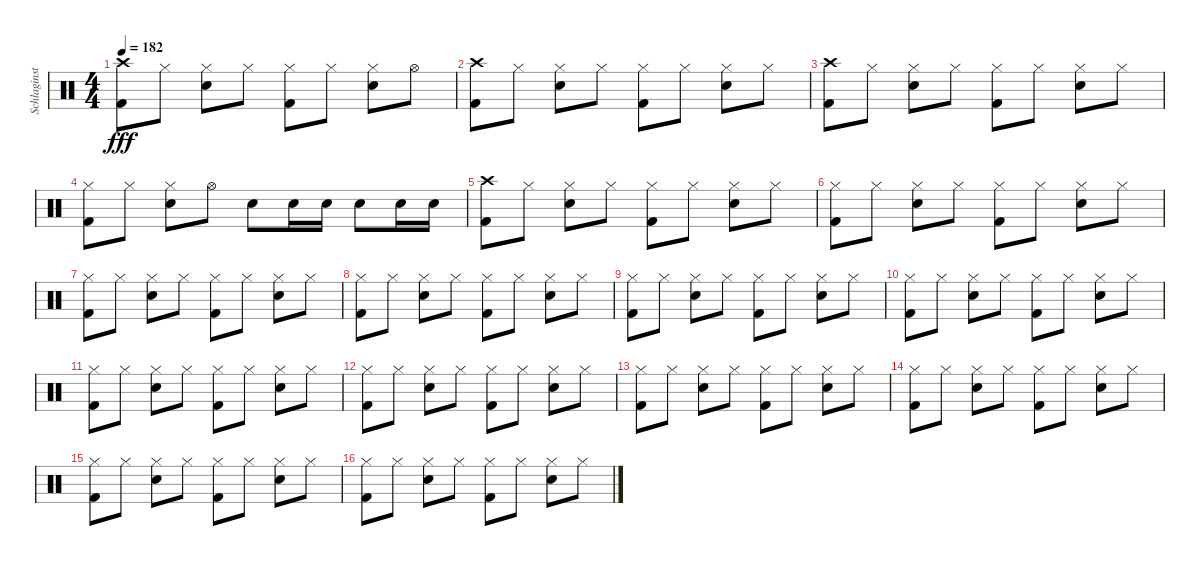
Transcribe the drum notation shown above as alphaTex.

\track ("Schlaginstrumente - Auswahl" "Schlaginst") {instrument percussion}
\staff {score}
\articulation defaults
\ts (4 4)
\tempo 182
\clef neutral
\ks c
("Kick (hit) 2" "Crash high (hit)").8{dy fff} "Hi-Hat (closed)".8 ("Snare (hit) 2" "Hi-Hat (closed)").8 "Hi-Hat (closed)".8 ("Kick (hit) 2" "Hi-Hat (closed)").8 "Hi-Hat (closed)".8 ("Snare (hit) 2" "Hi-Hat (closed)").8 "Hi-Hat (open)".8 |
("Kick (hit) 2" "Crash high (hit)").8 "Hi-Hat (closed)".8 ("Snare (hit) 2" "Hi-Hat (closed)").8 "Hi-Hat (closed)".8 ("Kick (hit) 2" "Hi-Hat (closed)").8 "Hi-Hat (closed)".8 ("Snare (hit) 2" "Hi-Hat (closed)").8 "Hi-Hat (closed)".8 |
("Kick (hit) 2" "Crash high (hit)").8 "Hi-Hat (closed)".8 ("Snare (hit) 2" "Hi-Hat (closed)").8 "Hi-Hat (closed)".8 ("Kick (hit) 2" "Hi-Hat (closed)").8 "Hi-Hat (closed)".8 ("Snare (hit) 2" "Hi-Hat (closed)").8 "Hi-Hat (closed)".8 |
("Kick (hit) 2" "Hi-Hat (closed)").8 "Hi-Hat (closed)".8 ("Snare (hit) 2" "Hi-Hat (closed)").8 "Hi-Hat (open)".8 "Snare (hit) 2".8 "Snare (hit) 2".16 "Snare (hit) 2".16 "Snare (hit) 2".8 "Snare (hit) 2".16 "Snare (hit) 2".16 |
("Kick (hit) 2" "Crash high (hit)").8 "Hi-Hat (closed)".8 ("Snare (hit) 2" "Hi-Hat (closed)").8 "Hi-Hat (closed)".8 ("Kick (hit) 2" "Hi-Hat (closed)").8 "Hi-Hat (closed)".8 ("Snare (hit) 2" "Hi-Hat (closed)").8 "Hi-Hat (closed)".8 |
("Kick (hit) 2" "Hi-Hat (closed)").8 "Hi-Hat (closed)".8 ("Snare (hit) 2" "Hi-Hat (closed)").8 "Hi-Hat (closed)".8 ("Kick (hit) 2" "Hi-Hat (closed)").8 "Hi-Hat (closed)".8 ("Snare (hit) 2" "Hi-Hat (closed)").8 "Hi-Hat (closed)".8 |
("Kick (hit) 2" "Hi-Hat (closed)").8 "Hi-Hat (closed)".8 ("Snare (hit) 2" "Hi-Hat (closed)").8 "Hi-Hat (closed)".8 ("Kick (hit) 2" "Hi-Hat (closed)").8 "Hi-Hat (closed)".8 ("Snare (hit) 2" "Hi-Hat (closed)").8 "Hi-Hat (closed)".8 |
("Kick (hit) 2" "Hi-Hat (closed)").8 "Hi-Hat (closed)".8 ("Snare (hit) 2" "Hi-Hat (closed)").8 "Hi-Hat (closed)".8 ("Kick (hit) 2" "Hi-Hat (closed)").8 "Hi-Hat (closed)".8 ("Snare (hit) 2" "Hi-Hat (closed)").8 "Hi-Hat (closed)".8 |
("Kick (hit) 2" "Hi-Hat (closed)").8 "Hi-Hat (closed)".8 ("Snare (hit) 2" "Hi-Hat (closed)").8 "Hi-Hat (closed)".8 ("Kick (hit) 2" "Hi-Hat (closed)").8 "Hi-Hat (closed)".8 ("Snare (hit) 2" "Hi-Hat (closed)").8 "Hi-Hat (closed)".8 |
("Kick (hit) 2" "Hi-Hat (closed)").8 "Hi-Hat (closed)".8 ("Snare (hit) 2" "Hi-Hat (closed)").8 "Hi-Hat (closed)".8 ("Kick (hit) 2" "Hi-Hat (closed)").8 "Hi-Hat (closed)".8 ("Snare (hit) 2" "Hi-Hat (closed)").8 "Hi-Hat (closed)".8 |
("Kick (hit) 2" "Hi-Hat (closed)").8 "Hi-Hat (closed)".8 ("Snare (hit) 2" "Hi-Hat (closed)").8 "Hi-Hat (closed)".8 ("Kick (hit) 2" "Hi-Hat (closed)").8 "Hi-Hat (closed)".8 ("Snare (hit) 2" "Hi-Hat (closed)").8 "Hi-Hat (closed)".8 |
("Kick (hit) 2" "Hi-Hat (closed)").8 "Hi-Hat (closed)".8 ("Snare (hit) 2" "Hi-Hat (closed)").8 "Hi-Hat (closed)".8 ("Kick (hit) 2" "Hi-Hat (closed)").8 "Hi-Hat (closed)".8 ("Snare (hit) 2" "Hi-Hat (closed)").8 "Hi-Hat (closed)".8 |
("Kick (hit) 2" "Hi-Hat (closed)").8 "Hi-Hat (closed)".8 ("Snare (hit) 2" "Hi-Hat (closed)").8 "Hi-Hat (closed)".8 ("Kick (hit) 2" "Hi-Hat (closed)").8 "Hi-Hat (closed)".8 ("Snare (hit) 2" "Hi-Hat (closed)").8 "Hi-Hat (closed)".8 |
("Kick (hit) 2" "Hi-Hat (closed)").8 "Hi-Hat (closed)".8 ("Snare (hit) 2" "Hi-Hat (closed)").8 "Hi-Hat (closed)".8 ("Kick (hit) 2" "Hi-Hat (closed)").8 "Hi-Hat (closed)".8 ("Snare (hit) 2" "Hi-Hat (closed)").8 "Hi-Hat (closed)".8 |
("Kick (hit) 2" "Hi-Hat (closed)").8 "Hi-Hat (closed)".8 ("Snare (hit) 2" "Hi-Hat (closed)").8 "Hi-Hat (closed)".8 ("Kick (hit) 2" "Hi-Hat (closed)").8 "Hi-Hat (closed)".8 ("Snare (hit) 2" "Hi-Hat (closed)").8 "Hi-Hat (closed)".8 |
("Kick (hit) 2" "Hi-Hat (closed)").8 "Hi-Hat (closed)".8 ("Snare (hit) 2" "Hi-Hat (closed)").8 "Hi-Hat (closed)".8 ("Kick (hit) 2" "Hi-Hat (closed)").8 "Hi-Hat (closed)".8 ("Snare (hit) 2" "Hi-Hat (closed)").8 "Hi-Hat (closed)".8
